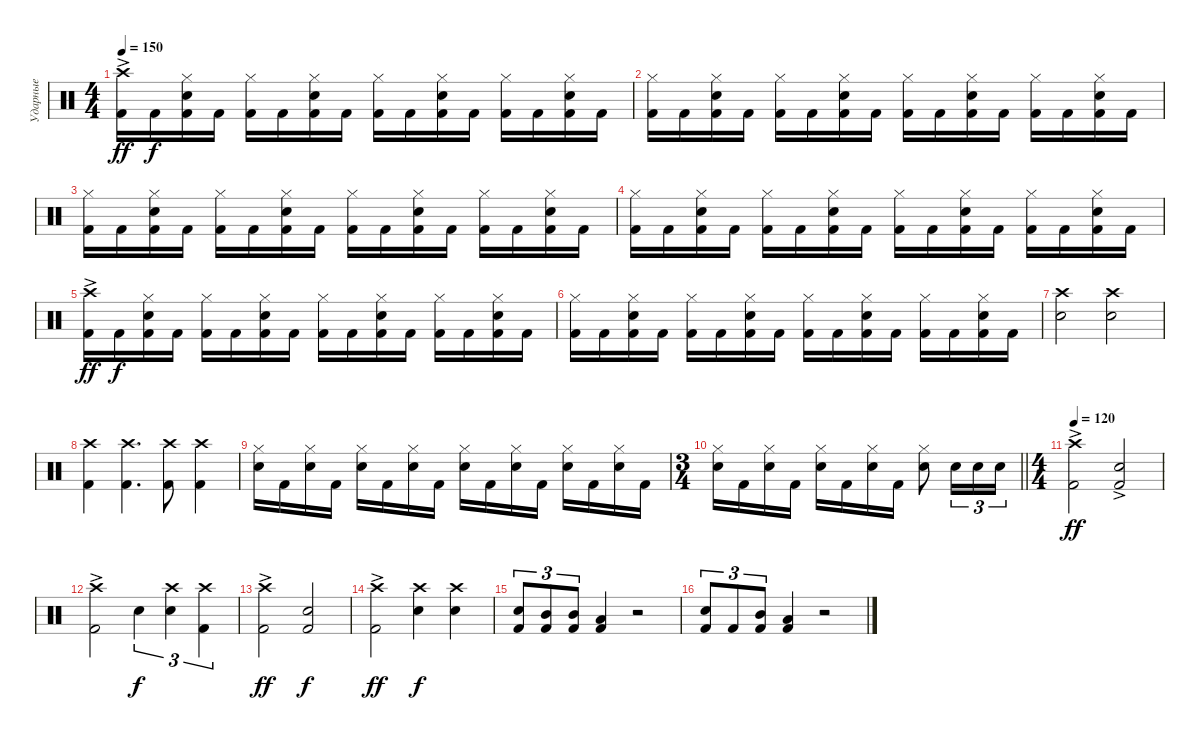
\track ("Ударные" "Ударные") {instrument percussion}
\staff
\articulation defaults
\ts (4 4)
\tempo 150
\clef neutral
\ks c
("Kick (hit) 2" "Crash high (hit)"{ac}).16{dy ff} "Kick (hit) 2".16{dy f} ("Kick (hit) 2" "Snare (hit) 2" "Hi-Hat (closed)").16 "Kick (hit) 2".16 ("Kick (hit) 2" "Hi-Hat (closed)").16 "Kick (hit) 2".16 ("Kick (hit) 2" "Snare (hit) 2" "Hi-Hat (closed)").16 "Kick (hit) 2".16 ("Kick (hit) 2" "Hi-Hat (closed)").16 "Kick (hit) 2".16 ("Kick (hit) 2" "Snare (hit) 2" "Hi-Hat (closed)").16 "Kick (hit) 2".16 ("Kick (hit) 2" "Hi-Hat (closed)").16 "Kick (hit) 2".16 ("Kick (hit) 2" "Snare (hit) 2" "Hi-Hat (closed)").16 "Kick (hit) 2".16 |
("Kick (hit) 2" "Hi-Hat (closed)").16 "Kick (hit) 2".16 ("Kick (hit) 2" "Snare (hit) 2" "Hi-Hat (closed)").16 "Kick (hit) 2".16 ("Kick (hit) 2" "Hi-Hat (closed)").16 "Kick (hit) 2".16 ("Kick (hit) 2" "Snare (hit) 2" "Hi-Hat (closed)").16 "Kick (hit) 2".16 ("Kick (hit) 2" "Hi-Hat (closed)").16 "Kick (hit) 2".16 ("Kick (hit) 2" "Snare (hit) 2" "Hi-Hat (closed)").16 "Kick (hit) 2".16 ("Kick (hit) 2" "Hi-Hat (closed)").16 "Kick (hit) 2".16 ("Kick (hit) 2" "Snare (hit) 2" "Hi-Hat (closed)").16 "Kick (hit) 2".16 |
("Kick (hit) 2" "Hi-Hat (closed)").16 "Kick (hit) 2".16 ("Kick (hit) 2" "Snare (hit) 2" "Hi-Hat (closed)").16 "Kick (hit) 2".16 ("Kick (hit) 2" "Hi-Hat (closed)").16 "Kick (hit) 2".16 ("Kick (hit) 2" "Snare (hit) 2" "Hi-Hat (closed)").16 "Kick (hit) 2".16 ("Kick (hit) 2" "Hi-Hat (closed)").16 "Kick (hit) 2".16 ("Kick (hit) 2" "Snare (hit) 2" "Hi-Hat (closed)").16 "Kick (hit) 2".16 ("Kick (hit) 2" "Hi-Hat (closed)").16 "Kick (hit) 2".16 ("Kick (hit) 2" "Snare (hit) 2" "Hi-Hat (closed)").16 "Kick (hit) 2".16 |
("Kick (hit) 2" "Hi-Hat (closed)").16 "Kick (hit) 2".16 ("Kick (hit) 2" "Snare (hit) 2" "Hi-Hat (closed)").16 "Kick (hit) 2".16 ("Kick (hit) 2" "Hi-Hat (closed)").16 "Kick (hit) 2".16 ("Kick (hit) 2" "Snare (hit) 2" "Hi-Hat (closed)").16 "Kick (hit) 2".16 ("Kick (hit) 2" "Hi-Hat (closed)").16 "Kick (hit) 2".16 ("Kick (hit) 2" "Snare (hit) 2" "Hi-Hat (closed)").16 "Kick (hit) 2".16 ("Kick (hit) 2" "Hi-Hat (closed)").16 "Kick (hit) 2".16 ("Kick (hit) 2" "Snare (hit) 2" "Hi-Hat (closed)").16 "Kick (hit) 2".16 |
("Kick (hit) 2" "Crash high (hit)"{ac}).16{dy ff} "Kick (hit) 2".16{dy f} ("Kick (hit) 2" "Snare (hit) 2" "Hi-Hat (closed)").16 "Kick (hit) 2".16 ("Kick (hit) 2" "Hi-Hat (closed)").16 "Kick (hit) 2".16 ("Kick (hit) 2" "Snare (hit) 2" "Hi-Hat (closed)").16 "Kick (hit) 2".16 ("Kick (hit) 2" "Hi-Hat (closed)").16 "Kick (hit) 2".16 ("Kick (hit) 2" "Snare (hit) 2" "Hi-Hat (closed)").16 "Kick (hit) 2".16 ("Kick (hit) 2" "Hi-Hat (closed)").16 "Kick (hit) 2".16 ("Kick (hit) 2" "Snare (hit) 2" "Hi-Hat (closed)").16 "Kick (hit) 2".16 |
("Kick (hit) 2" "Hi-Hat (closed)").16 "Kick (hit) 2".16 ("Kick (hit) 2" "Snare (hit) 2" "Hi-Hat (closed)").16 "Kick (hit) 2".16 ("Kick (hit) 2" "Hi-Hat (closed)").16 "Kick (hit) 2".16 ("Kick (hit) 2" "Snare (hit) 2" "Hi-Hat (closed)").16 "Kick (hit) 2".16 ("Kick (hit) 2" "Hi-Hat (closed)").16 "Kick (hit) 2".16 ("Kick (hit) 2" "Snare (hit) 2" "Hi-Hat (closed)").16 "Kick (hit) 2".16 ("Kick (hit) 2" "Hi-Hat (closed)").16 "Kick (hit) 2".16 ("Kick (hit) 2" "Snare (hit) 2" "Hi-Hat (closed)").16 "Kick (hit) 2".16 |
("Snare (hit) 2" "Crash high (hit)").2 ("Snare (hit) 2" "Crash high (hit)").2 |
("Crash high (hit)" "Kick (hit) 2").4 ("Crash high (hit)" "Kick (hit) 2").4{d} ("Crash high (hit)" "Kick (hit) 2").8 ("Crash high (hit)" "Kick (hit) 2").4 |
("Snare (hit) 2" "Hi-Hat (closed)").16 "Kick (hit) 2".16 ("Snare (hit) 2" "Hi-Hat (closed)").16 "Kick (hit) 2".16 ("Snare (hit) 2" "Hi-Hat (closed)").16 "Kick (hit) 2".16 ("Snare (hit) 2" "Hi-Hat (closed)").16 "Kick (hit) 2".16 ("Snare (hit) 2" "Hi-Hat (closed)").16 "Kick (hit) 2".16 ("Snare (hit) 2" "Hi-Hat (closed)").16 "Kick (hit) 2".16 ("Snare (hit) 2" "Hi-Hat (closed)").16 "Kick (hit) 2".16 ("Snare (hit) 2" "Hi-Hat (closed)").16 "Kick (hit) 2".16 |
\ts (3 4)
\barLineRight lightlight
("Snare (hit) 2" "Hi-Hat (closed)").16 "Kick (hit) 2".16 ("Snare (hit) 2" "Hi-Hat (closed)").16 "Kick (hit) 2".16 ("Snare (hit) 2" "Hi-Hat (closed)").16 "Kick (hit) 2".16 ("Snare (hit) 2" "Hi-Hat (closed)").16 "Kick (hit) 2".16 ("Snare (hit) 2" "Hi-Hat (closed)").8 "Snare (hit) 2".16{tu (3 2)} "Snare (hit) 2".16{tu (3 2)} "Snare (hit) 2".16{tu (3 2)} |
\ts (4 4)
\tempo 120
("Kick (hit) 2" "Crash high (hit)"{ac}).2{dy ff} ("Snare (hit) 2" "Kick (hit) 2"{ac}).2 |
("Kick (hit) 2" "Crash high (hit)"{ac}).2 "Snare (hit) 2".4{tu (3 2) dy f} ("Snare (hit) 2" "Crash high (hit)").4{tu (3 2)} ("Kick (hit) 2" "Crash high (hit)").4{tu (3 2)} |
("Kick (hit) 2" "Crash high (hit)"{ac}).2{dy ff} ("Snare (hit) 2" "Kick (hit) 2").2{dy f} |
("Kick (hit) 2" "Crash high (hit)"{ac}).2{dy ff} ("Snare (hit) 2" "Crash high (hit)").4{dy f} ("Snare (hit) 2" "Crash high (hit)").4 |
("Snare (hit) 2" "Kick (hit) 2").8{tu (3 2)} ("Mid Tom (hit)" "Kick (hit) 2").8{tu (3 2)} ("Mid Tom (hit)" "Kick (hit) 2").8{tu (3 2)} ("Low Tom (hit)" "Kick (hit) 2").4 r.2 |
("Snare (hit) 2" "Kick (hit) 2").8{tu (3 2)} "Kick (hit) 2".8{tu (3 2)} ("Mid Tom (hit)" "Kick (hit) 2").8{tu (3 2)} ("Low Tom (hit)" "Kick (hit) 2").4 r.2
